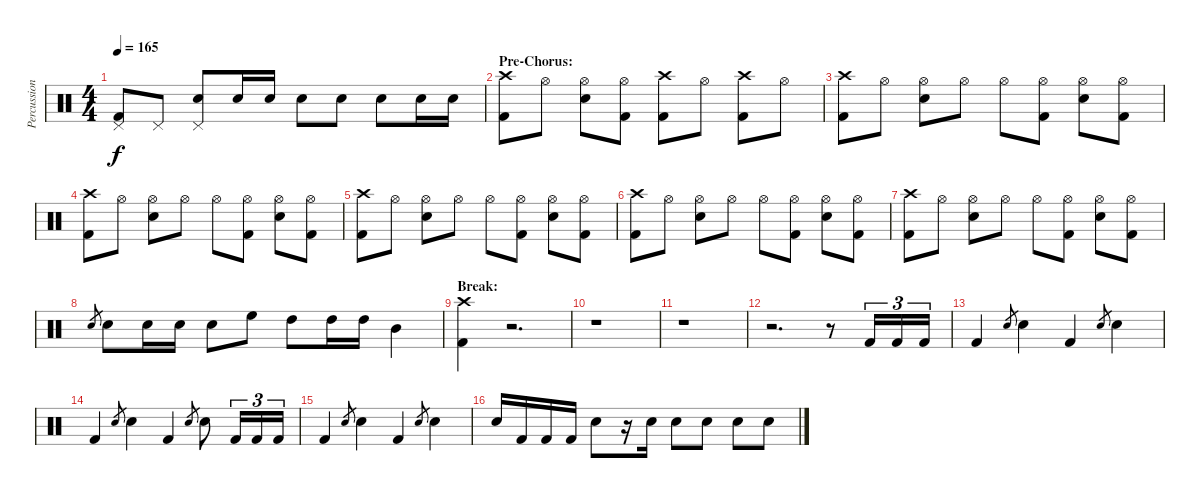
\track ("Percussion" "Percussion") {instrument percussion}
\staff {score}
\articulation defaults
\ts (4 4)
\tempo 165
\clef neutral
\ks c
("Pedal Hi-Hat (hit)" "Kick (hit) 2").8{dy f} "Pedal Hi-Hat (hit)".8 ("Pedal Hi-Hat (hit)" "Snare (hit) 2").8 "Snare (hit) 2".16 "Snare (hit) 2".16 "Snare (hit) 2".8 "Snare (hit) 2".8 "Snare (hit) 2".8 "Snare (hit) 2".16 "Snare (hit) 2".16 |
\section ("" "Pre-Chorus:")
("Crash high (hit)" "Kick (hit) 2").8 "Hi-Hat (open)".8 ("Hi-Hat (open)" "Snare (hit) 2").8 ("Hi-Hat (open)" "Kick (hit) 2").8 ("Crash high (hit)" "Kick (hit) 2").8 "Hi-Hat (open)".8 ("Crash high (hit)" "Kick (hit) 2").8 "Hi-Hat (open)".8 |
("Crash high (hit)" "Kick (hit) 2").8 "Hi-Hat (open)".8 ("Hi-Hat (open)" "Snare (hit) 2").8 "Hi-Hat (open)".8 "Hi-Hat (open)".8 ("Hi-Hat (open)" "Kick (hit) 2").8 ("Hi-Hat (open)" "Snare (hit) 2").8 ("Hi-Hat (open)" "Kick (hit) 2").8 |
("Crash high (hit)" "Kick (hit) 2").8 "Hi-Hat (open)".8 ("Hi-Hat (open)" "Snare (hit) 2").8 "Hi-Hat (open)".8 "Hi-Hat (open)".8 ("Hi-Hat (open)" "Kick (hit) 2").8 ("Hi-Hat (open)" "Snare (hit) 2").8 ("Hi-Hat (open)" "Kick (hit) 2").8 |
("Crash high (hit)" "Kick (hit) 2").8 "Hi-Hat (open)".8 ("Hi-Hat (open)" "Snare (hit) 2").8 "Hi-Hat (open)".8 "Hi-Hat (open)".8 ("Hi-Hat (open)" "Kick (hit) 2").8 ("Hi-Hat (open)" "Snare (hit) 2").8 ("Hi-Hat (open)" "Kick (hit) 2").8 |
("Crash high (hit)" "Kick (hit) 2").8 "Hi-Hat (open)".8 ("Hi-Hat (open)" "Snare (hit) 2").8 "Hi-Hat (open)".8 "Hi-Hat (open)".8 ("Hi-Hat (open)" "Kick (hit) 2").8 ("Hi-Hat (open)" "Snare (hit) 2").8 ("Hi-Hat (open)" "Kick (hit) 2").8 |
("Crash high (hit)" "Kick (hit) 2").8 "Hi-Hat (open)".8 ("Hi-Hat (open)" "Snare (hit) 2").8 "Hi-Hat (open)".8 "Hi-Hat (open)".8 ("Hi-Hat (open)" "Kick (hit) 2").8 ("Hi-Hat (open)" "Snare (hit) 2").8 ("Hi-Hat (open)" "Kick (hit) 2").8 |
"Snare (hit) 2".8{gr} "Snare (hit) 2".8 "Snare (hit) 2".16 "Snare (hit) 2".16 "Snare (hit) 2".8 "High Floor Tom (hit)".8 "High Tom (hit)".8 "High Tom (hit)".16 "High Tom (hit)".16 "Mid Tom (hit)".4 |
\section ("" "Break:")
("Crash high (hit)" "Kick (hit) 2").4 r.2{d} |
r.1 |
r.1 |
r.2{d} r.8 "Kick (hit) 2".16{tu (3 2)} "Kick (hit) 2".16{tu (3 2)} "Kick (hit) 2".16{tu (3 2)} |
"Kick (hit) 2".4 "Snare (hit) 2".8{gr} "Snare (hit) 2".4 "Kick (hit) 2".4 "Snare (hit) 2".8{gr} "Snare (hit) 2".4 |
"Kick (hit) 2".4 "Snare (hit) 2".8{gr} "Snare (hit) 2".4 "Kick (hit) 2".4 "Snare (hit) 2".8{gr} "Snare (hit) 2".8 "Kick (hit) 2".16{tu (3 2)} "Kick (hit) 2".16{tu (3 2)} "Kick (hit) 2".16{tu (3 2)} |
"Kick (hit) 2".4 "Snare (hit) 2".8{gr} "Snare (hit) 2".4 "Kick (hit) 2".4 "Snare (hit) 2".8{gr} "Snare (hit) 2".4 |
"Snare (hit) 2".16 "Kick (hit) 2".16 "Kick (hit) 2".16 "Kick (hit) 2".16 "Snare (hit) 2".8 r.16 "Snare (hit) 2".16 "Snare (hit) 2".8 "Snare (hit) 2".8 "Snare (hit) 2".8 "Snare (hit) 2".8
